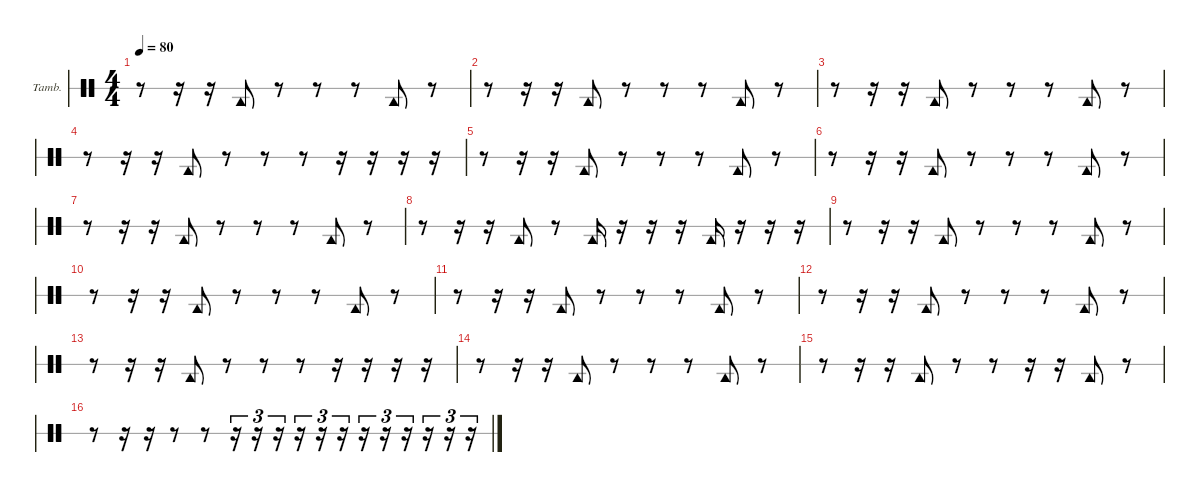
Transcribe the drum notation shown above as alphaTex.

\hideDynamics
\bracketExtendMode nobrackets
\firstSystemTrackNameOrientation horizontal
\otherSystemsTrackNameOrientation horizontal
\track ("Tambourine" "Tamb.") {instrument percussion}
\staff {score 1}
\articulation defaults
\ts (4 4)
\tempo 80
\clef neutral
\ks c
r.8{dy p} r.16 r.16 "Tambourine (hit)".8{dy f} r.8 r.8 r.8 "Tambourine (hit)".8 r.8 |
r.8 r.16 r.16 "Tambourine (hit)".8 r.8 r.8 r.8 "Tambourine (hit)".8 r.8 |
r.8 r.16 r.16 "Tambourine (hit)".8 r.8 r.8 r.8 "Tambourine (hit)".8 r.8 |
r.8 r.16 r.16 "Tambourine (hit)".8 r.8 r.8 r.8 r.16 r.16 r.16 r.16 |
r.8 r.16 r.16 "Tambourine (hit)".8 r.8 r.8 r.8 "Tambourine (hit)".8 r.8 |
r.8 r.16 r.16 "Tambourine (hit)".8 r.8 r.8 r.8 "Tambourine (hit)".8 r.8 |
r.8 r.16 r.16 "Tambourine (hit)".8 r.8 r.8 r.8 "Tambourine (hit)".8 r.8 |
r.8 r.16 r.16 "Tambourine (hit)".8 r.8 "Tambourine (hit)".16 r.16 r.16 r.16 "Tambourine (hit)".16 r.16 r.16 r.16 |
r.8 r.16 r.16 "Tambourine (hit)".8 r.8 r.8 r.8 "Tambourine (hit)".8 r.8 |
r.8 r.16 r.16 "Tambourine (hit)".8 r.8 r.8 r.8 "Tambourine (hit)".8 r.8 |
r.8 r.16 r.16 "Tambourine (hit)".8 r.8 r.8 r.8 "Tambourine (hit)".8 r.8 |
r.8 r.16 r.16 "Tambourine (hit)".8 r.8 r.8 r.8 "Tambourine (hit)".8 r.8 |
r.8 r.16 r.16 "Tambourine (hit)".8 r.8 r.8 r.8 r.16 r.16 r.16 r.16 |
r.8 r.16 r.16 "Tambourine (hit)".8 r.8 r.8 r.8 "Tambourine (hit)".8 r.8 |
r.8 r.16 r.16 "Tambourine (hit)".8 r.8 r.8 r.16 r.16 "Tambourine (hit)".8 r.8 |
r.8 r.16 r.16 r.8 r.8 r.16{tu (3 2)} r.16{tu (3 2)} r.16{tu (3 2)} r.16{tu (3 2)} r.16{tu (3 2)} r.16{tu (3 2)} r.16{tu (3 2)} r.16{tu (3 2)} r.16{tu (3 2)} r.16{tu (3 2)} r.16{tu (3 2)} r.16{tu (3 2)}
